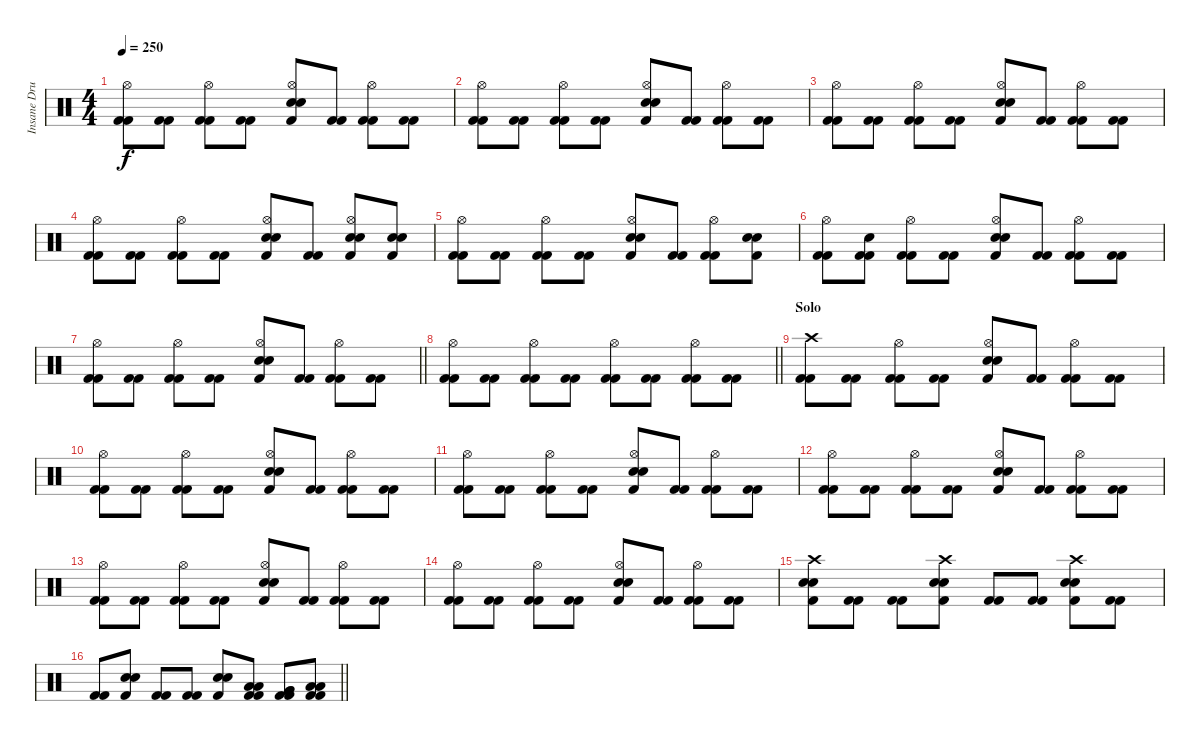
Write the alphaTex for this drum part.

\track ("Insane Drums" "Insane Dru") {instrument percussion}
\staff {score}
\articulation defaults
\ts (4 4)
\tempo 250
\clef neutral
\ks c
("Kick (hit) 2" "Kick (hit) 2" "Hi-Hat (open)").8{dy f} ("Kick (hit) 2" "Kick (hit) 2").8 ("Kick (hit) 2" "Kick (hit) 2" "Hi-Hat (open)").8 ("Kick (hit) 2" "Kick (hit) 2").8 ("Kick (hit) 2" "Electric Snare (hit)" "Electric Snare (hit)" "Hi-Hat (open)").8 ("Kick (hit) 2" "Kick (hit) 2").8 ("Kick (hit) 2" "Kick (hit) 2" "Hi-Hat (open)").8 ("Kick (hit) 2" "Kick (hit) 2").8 |
("Kick (hit) 2" "Kick (hit) 2" "Hi-Hat (open)").8 ("Kick (hit) 2" "Kick (hit) 2").8 ("Kick (hit) 2" "Kick (hit) 2" "Hi-Hat (open)").8 ("Kick (hit) 2" "Kick (hit) 2").8 ("Kick (hit) 2" "Electric Snare (hit)" "Electric Snare (hit)" "Hi-Hat (open)").8 ("Kick (hit) 2" "Kick (hit) 2").8 ("Kick (hit) 2" "Kick (hit) 2" "Hi-Hat (open)").8 ("Kick (hit) 2" "Kick (hit) 2").8 |
("Kick (hit) 2" "Kick (hit) 2" "Hi-Hat (open)").8 ("Kick (hit) 2" "Kick (hit) 2").8 ("Kick (hit) 2" "Kick (hit) 2" "Hi-Hat (open)").8 ("Kick (hit) 2" "Kick (hit) 2").8 ("Kick (hit) 2" "Electric Snare (hit)" "Electric Snare (hit)" "Hi-Hat (open)").8 ("Kick (hit) 2" "Kick (hit) 2").8 ("Kick (hit) 2" "Kick (hit) 2" "Hi-Hat (open)").8 ("Kick (hit) 2" "Kick (hit) 2").8 |
("Kick (hit) 2" "Kick (hit) 2" "Hi-Hat (open)").8 ("Kick (hit) 2" "Kick (hit) 2").8 ("Kick (hit) 2" "Kick (hit) 2" "Hi-Hat (open)").8 ("Kick (hit) 2" "Kick (hit) 2").8 ("Kick (hit) 2" "Electric Snare (hit)" "Electric Snare (hit)" "Hi-Hat (open)").8 ("Kick (hit) 2" "Kick (hit) 2").8 ("Kick (hit) 2" "Electric Snare (hit)" "Electric Snare (hit)" "Hi-Hat (open)").8 ("Kick (hit) 2" "Electric Snare (hit)" "Electric Snare (hit)").8 |
("Kick (hit) 2" "Kick (hit) 2" "Hi-Hat (open)").8 ("Kick (hit) 2" "Kick (hit) 2").8 ("Kick (hit) 2" "Kick (hit) 2" "Hi-Hat (open)").8 ("Kick (hit) 2" "Kick (hit) 2").8 ("Kick (hit) 2" "Electric Snare (hit)" "Electric Snare (hit)" "Hi-Hat (open)").8 ("Kick (hit) 2" "Kick (hit) 2").8 ("Kick (hit) 2" "Kick (hit) 2" "Hi-Hat (open)").8 ("Kick (hit) 2" "Electric Snare (hit)" "Electric Snare (hit)").8 |
("Kick (hit) 2" "Kick (hit) 2" "Hi-Hat (open)").8 ("Kick (hit) 2" "Kick (hit) 2" "Electric Snare (hit)").8 ("Kick (hit) 2" "Kick (hit) 2" "Hi-Hat (open)").8 ("Kick (hit) 2" "Kick (hit) 2").8 ("Kick (hit) 2" "Electric Snare (hit)" "Electric Snare (hit)" "Hi-Hat (open)").8 ("Kick (hit) 2" "Kick (hit) 2").8 ("Kick (hit) 2" "Kick (hit) 2" "Hi-Hat (open)").8 ("Kick (hit) 2" "Kick (hit) 2").8 |
\barLineRight lightlight
("Kick (hit) 2" "Kick (hit) 2" "Hi-Hat (open)").8 ("Kick (hit) 2" "Kick (hit) 2").8 ("Kick (hit) 2" "Kick (hit) 2" "Hi-Hat (open)").8 ("Kick (hit) 2" "Kick (hit) 2").8 ("Kick (hit) 2" "Electric Snare (hit)" "Electric Snare (hit)" "Hi-Hat (open)").8 ("Kick (hit) 2" "Kick (hit) 2").8 ("Kick (hit) 2" "Kick (hit) 2" "Hi-Hat (open)").8 ("Kick (hit) 2" "Kick (hit) 2").8 |
\barLineRight lightlight
("Kick (hit) 2" "Kick (hit) 2" "Hi-Hat (open)").8 ("Kick (hit) 2" "Kick (hit) 2").8 ("Kick (hit) 2" "Kick (hit) 2" "Hi-Hat (open)").8 ("Kick (hit) 2" "Kick (hit) 2").8 ("Kick (hit) 2" "Kick (hit) 2" "Hi-Hat (open)").8 ("Kick (hit) 2" "Kick (hit) 2").8 ("Kick (hit) 2" "Kick (hit) 2" "Hi-Hat (open)").8 ("Kick (hit) 2" "Kick (hit) 2").8 |
\section ("" "Solo")
("Kick (hit) 2" "Kick (hit) 2" "Crash high (hit)").8 ("Kick (hit) 2" "Kick (hit) 2").8 ("Kick (hit) 2" "Kick (hit) 2" "Hi-Hat (open)").8 ("Kick (hit) 2" "Kick (hit) 2").8 ("Kick (hit) 2" "Electric Snare (hit)" "Electric Snare (hit)" "Hi-Hat (open)").8 ("Kick (hit) 2" "Kick (hit) 2").8 ("Kick (hit) 2" "Kick (hit) 2" "Hi-Hat (open)").8 ("Kick (hit) 2" "Kick (hit) 2").8 |
("Kick (hit) 2" "Kick (hit) 2" "Hi-Hat (open)").8 ("Kick (hit) 2" "Kick (hit) 2").8 ("Kick (hit) 2" "Kick (hit) 2" "Hi-Hat (open)").8 ("Kick (hit) 2" "Kick (hit) 2").8 ("Kick (hit) 2" "Electric Snare (hit)" "Electric Snare (hit)" "Hi-Hat (open)").8 ("Kick (hit) 2" "Kick (hit) 2").8 ("Kick (hit) 2" "Kick (hit) 2" "Hi-Hat (open)").8 ("Kick (hit) 2" "Kick (hit) 2").8 |
("Kick (hit) 2" "Kick (hit) 2" "Hi-Hat (open)").8 ("Kick (hit) 2" "Kick (hit) 2").8 ("Kick (hit) 2" "Kick (hit) 2" "Hi-Hat (open)").8 ("Kick (hit) 2" "Kick (hit) 2").8 ("Kick (hit) 2" "Electric Snare (hit)" "Electric Snare (hit)" "Hi-Hat (open)").8 ("Kick (hit) 2" "Kick (hit) 2").8 ("Kick (hit) 2" "Kick (hit) 2" "Hi-Hat (open)").8 ("Kick (hit) 2" "Kick (hit) 2").8 |
("Kick (hit) 2" "Kick (hit) 2" "Hi-Hat (open)").8 ("Kick (hit) 2" "Kick (hit) 2").8 ("Kick (hit) 2" "Kick (hit) 2" "Hi-Hat (open)").8 ("Kick (hit) 2" "Kick (hit) 2").8 ("Kick (hit) 2" "Electric Snare (hit)" "Electric Snare (hit)" "Hi-Hat (open)").8 ("Kick (hit) 2" "Kick (hit) 2").8 ("Kick (hit) 2" "Kick (hit) 2" "Hi-Hat (open)").8 ("Kick (hit) 2" "Kick (hit) 2").8 |
("Kick (hit) 2" "Kick (hit) 2" "Hi-Hat (open)").8 ("Kick (hit) 2" "Kick (hit) 2").8 ("Kick (hit) 2" "Kick (hit) 2" "Hi-Hat (open)").8 ("Kick (hit) 2" "Kick (hit) 2").8 ("Kick (hit) 2" "Electric Snare (hit)" "Electric Snare (hit)" "Hi-Hat (open)").8 ("Kick (hit) 2" "Kick (hit) 2").8 ("Kick (hit) 2" "Kick (hit) 2" "Hi-Hat (open)").8 ("Kick (hit) 2" "Kick (hit) 2").8 |
("Kick (hit) 2" "Kick (hit) 2" "Hi-Hat (open)").8 ("Kick (hit) 2" "Kick (hit) 2").8 ("Kick (hit) 2" "Kick (hit) 2" "Hi-Hat (open)").8 ("Kick (hit) 2" "Kick (hit) 2").8 ("Kick (hit) 2" "Electric Snare (hit)" "Electric Snare (hit)" "Hi-Hat (open)").8 ("Kick (hit) 2" "Kick (hit) 2").8 ("Kick (hit) 2" "Kick (hit) 2" "Hi-Hat (open)").8 ("Kick (hit) 2" "Kick (hit) 2").8 |
("Kick (hit) 2" "Electric Snare (hit)" "Electric Snare (hit)" "Crash high (hit)").8 ("Kick (hit) 2" "Kick (hit) 2").8 ("Kick (hit) 2" "Kick (hit) 2").8 ("Kick (hit) 2" "Electric Snare (hit)" "Electric Snare (hit)" "Crash high (hit)").8 ("Kick (hit) 2" "Kick (hit) 2").8 ("Kick (hit) 2" "Kick (hit) 2").8 ("Kick (hit) 2" "Electric Snare (hit)" "Electric Snare (hit)" "Crash high (hit)").8 ("Kick (hit) 2" "Kick (hit) 2").8 |
\barLineRight lightlight
("Kick (hit) 2" "Kick (hit) 2").8 ("Kick (hit) 2" "Electric Snare (hit)" "Electric Snare (hit)").8 ("Kick (hit) 2" "Kick (hit) 2").8 ("Kick (hit) 2" "Kick (hit) 2").8 ("Kick (hit) 2" "Electric Snare (hit)" "Electric Snare (hit)").8 ("Kick (hit) 2" "Kick (hit) 2" "Low Tom (hit)" "Low Tom (hit)").8 ("Kick (hit) 2" "Kick (hit) 2" "Very Low Tom (hit)" "Very Low Tom (hit)").8 ("Kick (hit) 2" "Kick (hit) 2" "Low Floor Tom (hit)" "Low Floor Tom (hit)").8
